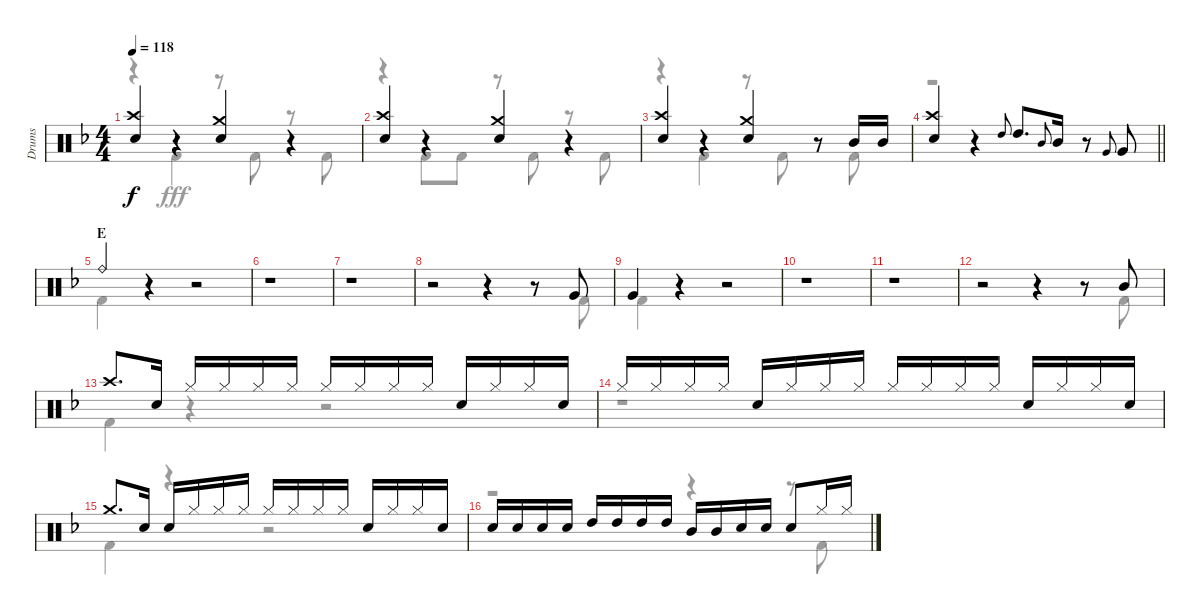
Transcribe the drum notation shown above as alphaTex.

\track ("Drums" "Drums") {instrument percussion}
\staff {score}
\articulation defaults
\voice
\ts (4 4)
\tempo 118
\clef neutral
\ks f
("Crash high (hit)" "Snare (hit) 2").4{dy f} r.4 ("Crash medium (hit)" "Snare (hit) 2").4 r.4 |
("Crash high (hit)" "Snare (hit) 2").4 r.4 ("Crash medium (hit)" "Snare (hit) 2").4 r.4 |
("Crash high (hit)" "Snare (hit) 2").4 r.4 ("Crash medium (hit)" "Snare (hit) 2").4 r.8 "Mid Tom (hit)".16 "Mid Tom (hit)".16 |
\barLineRight lightlight
("Crash high (hit)" "Snare (hit) 2").4 r.4 "High Tom (hit)".8{gr onbeat} "High Tom (hit)".8{d} "Mid Tom (hit)".8{gr onbeat} "Mid Tom (hit)".16 r.8 "Very Low Tom (hit)".8{gr onbeat} "Very Low Tom (hit)".8 |
\section ("" "E")
"Ride (bell)".4 r.4 r.2 |
r.1 |
r.1 |
r.2 r.4 r.8 "Very Low Tom (hit)".8 |
"Very Low Tom (hit)".4 r.4 r.2 |
r.1 |
r.1 |
r.2 r.4 r.8 "Mid Tom (hit)".8 |
"Crash high (hit)".8{d} "Electric Snare (hit)".16 "Hi-Hat (closed)".16 "Hi-Hat (closed)".16 "Hi-Hat (closed)".16 "Hi-Hat (closed)".16 "Hi-Hat (closed)".16 "Hi-Hat (closed)".16 "Hi-Hat (closed)".16 "Hi-Hat (closed)".16 "Electric Snare (hit)".16 "Hi-Hat (closed)".16 "Hi-Hat (closed)".16 "Electric Snare (hit)".16 |
"Hi-Hat (closed)".16 "Hi-Hat (closed)".16 "Hi-Hat (closed)".16 "Hi-Hat (closed)".16 "Electric Snare (hit)".16 "Hi-Hat (closed)".16 "Hi-Hat (closed)".16 "Hi-Hat (closed)".16 "Hi-Hat (closed)".16 "Hi-Hat (closed)".16 "Hi-Hat (closed)".16 "Hi-Hat (closed)".16 "Electric Snare (hit)".16 "Hi-Hat (closed)".16 "Hi-Hat (closed)".16 "Electric Snare (hit)".16 |
"Crash medium (hit)".8{d} "Electric Snare (hit)".16 "Electric Snare (hit)".16 "Hi-Hat (closed)".16 "Hi-Hat (closed)".16 "Hi-Hat (closed)".16 "Hi-Hat (closed)".16 "Hi-Hat (closed)".16 "Hi-Hat (closed)".16 "Hi-Hat (closed)".16 "Electric Snare (hit)".16 "Hi-Hat (closed)".16 "Hi-Hat (closed)".16 "Electric Snare (hit)".16 |
"Electric Snare (hit)".16 "Electric Snare (hit)".16 "Electric Snare (hit)".16 "Electric Snare (hit)".16 "High Tom (hit)".16 "High Tom (hit)".16 "High Tom (hit)".16 "High Tom (hit)".16 "Mid Tom (hit)".16 "Mid Tom (hit)".16 "Electric Snare (hit)".16 "Electric Snare (hit)".16 "Electric Snare (hit)".8 "Hi-Hat (closed)".16 "Hi-Hat (closed)".16
\voice
\clef neutral
\ottava regular
\simile none
\ks f
r.4{dy fff} "Kick (hit) 2".4 r.8 "Kick (hit) 2".8 r.8 "Kick (hit) 2".8 |
r.4 "Kick (hit) 2".8 "Kick (hit) 2".8 r.8 "Kick (hit) 2".8 r.8 "Kick (hit) 2".8 |
r.4 "Kick (hit) 2".4 r.8 "Kick (hit) 2".8 r.8 "Kick (hit) 2".8 |
\barLineRight lightlight
r.1 |
"Kick (hit) 2".4 r.4 r.2 |
r.1 |
r.1 |
r.2 r.4 r.8 "Kick (hit) 2".8 |
"Kick (hit) 2".4 r.4 r.2 |
r.1 |
r.1 |
r.2 r.4 r.8 "Kick (hit) 2".8 |
"Kick (hit) 2".4 r.4 r.2 |
r.1 |
"Kick (hit) 2".4 r.4 r.2 |
r.2 r.4 r.8 "Kick (hit) 2".8
